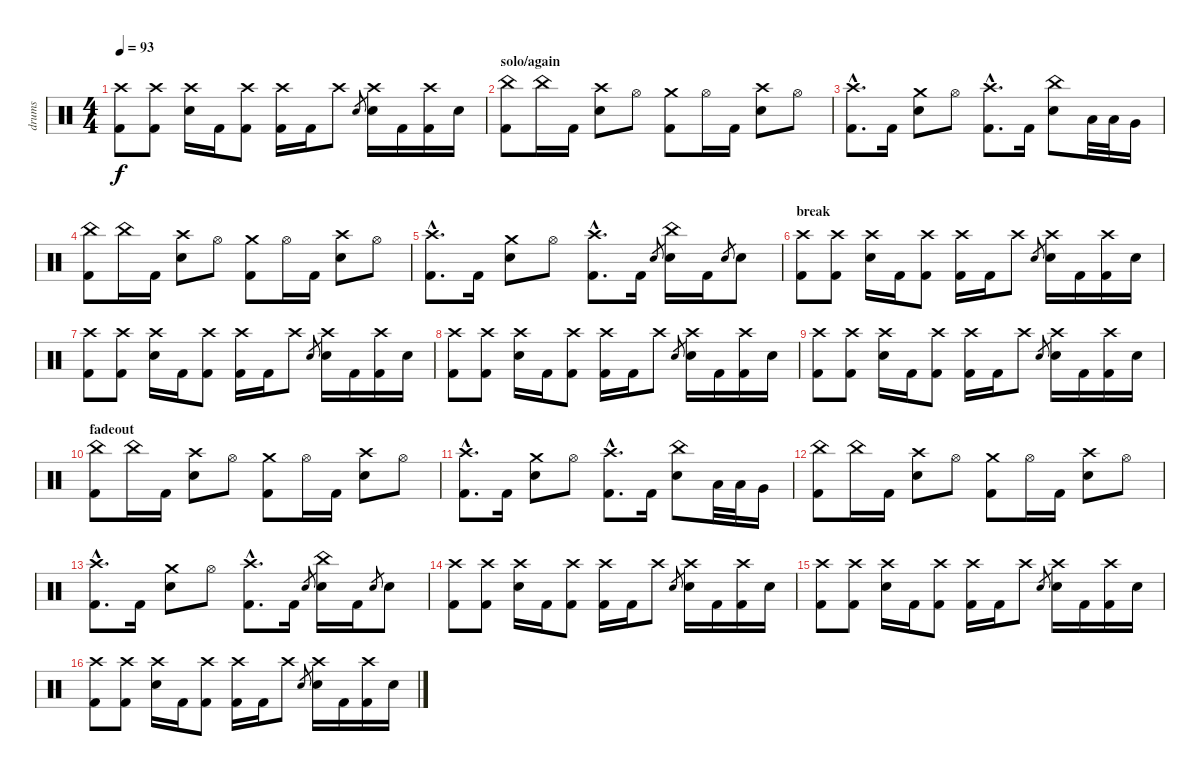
\track ("drums" "drums") {instrument percussion}
\staff {score}
\articulation defaults
\ts (4 4)
\tempo 93
\clef neutral
\ks c
("Crash high (hit)" "Kick (hit) 2").8{dy f} ("Crash high (hit)" "Kick (hit) 2").8 ("Crash high (hit)" "Electric Snare (hit)").16 "Kick (hit) 2".16 ("Crash high (hit)" "Kick (hit) 2").8 ("Crash high (hit)" "Kick (hit) 2").16 "Kick (hit) 2".16 "Crash high (hit)".8 "Electric Snare (hit)".8{gr} ("Crash high (hit)" "Electric Snare (hit)").16 "Kick (hit) 2".16 ("Crash high (hit)" "Kick (hit) 2").16 "Electric Snare (hit)".16 |
\section ("" "solo/again")
("China (hit)" "Kick (hit) 2").8 "China (hit)".16 "Kick (hit) 2".16 ("Crash high (hit)" "Electric Snare (hit)").8 "Hi-Hat (open)".8 ("Crash medium (hit)" "Kick (hit) 2").8 "Hi-Hat (open)".16 "Kick (hit) 2".16 ("Crash high (hit)" "Electric Snare (hit)").8 "Hi-Hat (open)".8 |
("Crash high (hit)"{hac} "Kick (hit) 2"{hac}).8{d} "Kick (hit) 2".16 ("Crash medium (hit)" "Electric Snare (hit)").8 "Hi-Hat (open)".8 ("Crash high (hit)"{hac} "Kick (hit) 2"{hac}).8{d} "Kick (hit) 2".16 ("China (hit)" "Electric Snare (hit)").8 "Low Tom (hit)".32 "Low Tom (hit)".32 "Very Low Tom (hit)".16 |
("China (hit)" "Kick (hit) 2").8 "China (hit)".16 "Kick (hit) 2".16 ("Crash high (hit)" "Electric Snare (hit)").8 "Hi-Hat (open)".8 ("Crash medium (hit)" "Kick (hit) 2").8 "Hi-Hat (open)".16 "Kick (hit) 2".16 ("Crash high (hit)" "Electric Snare (hit)").8 "Hi-Hat (open)".8 |
("Crash high (hit)"{hac} "Kick (hit) 2"{hac}).8{d} "Kick (hit) 2".16 ("Crash medium (hit)" "Electric Snare (hit)").8 "Hi-Hat (open)".8 ("Crash high (hit)"{hac} "Kick (hit) 2"{hac}).8{d} "Kick (hit) 2".16 "Electric Snare (hit)".8{gr} ("China (hit)" "Electric Snare (hit)").16 "Kick (hit) 2".16 "Electric Snare (hit)".8{gr} "Electric Snare (hit)".8 |
\section ("" "break")
("Crash high (hit)" "Kick (hit) 2").8 ("Crash high (hit)" "Kick (hit) 2").8 ("Crash high (hit)" "Electric Snare (hit)").16 "Kick (hit) 2".16 ("Crash high (hit)" "Kick (hit) 2").8 ("Crash high (hit)" "Kick (hit) 2").16 "Kick (hit) 2".16 "Crash high (hit)".8 "Electric Snare (hit)".8{gr} ("Crash high (hit)" "Electric Snare (hit)").16 "Kick (hit) 2".16 ("Crash high (hit)" "Kick (hit) 2").16 "Electric Snare (hit)".16 |
("Crash high (hit)" "Kick (hit) 2").8 ("Crash high (hit)" "Kick (hit) 2").8 ("Crash high (hit)" "Electric Snare (hit)").16 "Kick (hit) 2".16 ("Crash high (hit)" "Kick (hit) 2").8 ("Crash high (hit)" "Kick (hit) 2").16 "Kick (hit) 2".16 "Crash high (hit)".8 "Electric Snare (hit)".8{gr} ("Crash high (hit)" "Electric Snare (hit)").16 "Kick (hit) 2".16 ("Crash high (hit)" "Kick (hit) 2").16 "Electric Snare (hit)".16 |
("Crash high (hit)" "Kick (hit) 2").8 ("Crash high (hit)" "Kick (hit) 2").8 ("Crash high (hit)" "Electric Snare (hit)").16 "Kick (hit) 2".16 ("Crash high (hit)" "Kick (hit) 2").8 ("Crash high (hit)" "Kick (hit) 2").16 "Kick (hit) 2".16 "Crash high (hit)".8 "Electric Snare (hit)".8{gr} ("Crash high (hit)" "Electric Snare (hit)").16 "Kick (hit) 2".16 ("Crash high (hit)" "Kick (hit) 2").16 "Electric Snare (hit)".16 |
("Crash high (hit)" "Kick (hit) 2").8 ("Crash high (hit)" "Kick (hit) 2").8 ("Crash high (hit)" "Electric Snare (hit)").16 "Kick (hit) 2".16 ("Crash high (hit)" "Kick (hit) 2").8 ("Crash high (hit)" "Kick (hit) 2").16 "Kick (hit) 2".16 "Crash high (hit)".8 "Electric Snare (hit)".8{gr} ("Crash high (hit)" "Electric Snare (hit)").16 "Kick (hit) 2".16 ("Crash high (hit)" "Kick (hit) 2").16 "Electric Snare (hit)".16 |
\section ("" "fadeout")
("China (hit)" "Kick (hit) 2").8 "China (hit)".16 "Kick (hit) 2".16 ("Crash high (hit)" "Electric Snare (hit)").8 "Hi-Hat (open)".8 ("Crash medium (hit)" "Kick (hit) 2").8 "Hi-Hat (open)".16 "Kick (hit) 2".16 ("Crash high (hit)" "Electric Snare (hit)").8 "Hi-Hat (open)".8 |
("Crash high (hit)"{hac} "Kick (hit) 2"{hac}).8{d} "Kick (hit) 2".16 ("Crash medium (hit)" "Electric Snare (hit)").8 "Hi-Hat (open)".8 ("Crash high (hit)"{hac} "Kick (hit) 2"{hac}).8{d} "Kick (hit) 2".16 ("China (hit)" "Electric Snare (hit)").8 "Low Tom (hit)".32 "Low Tom (hit)".32 "Very Low Tom (hit)".16 |
("China (hit)" "Kick (hit) 2").8 "China (hit)".16 "Kick (hit) 2".16 ("Crash high (hit)" "Electric Snare (hit)").8 "Hi-Hat (open)".8 ("Crash medium (hit)" "Kick (hit) 2").8 "Hi-Hat (open)".16 "Kick (hit) 2".16 ("Crash high (hit)" "Electric Snare (hit)").8 "Hi-Hat (open)".8 |
("Crash high (hit)"{hac} "Kick (hit) 2"{hac}).8{d} "Kick (hit) 2".16 ("Crash medium (hit)" "Electric Snare (hit)").8 "Hi-Hat (open)".8 ("Crash high (hit)"{hac} "Kick (hit) 2"{hac}).8{d} "Kick (hit) 2".16 "Electric Snare (hit)".8{gr} ("China (hit)" "Electric Snare (hit)").16 "Kick (hit) 2".16 "Electric Snare (hit)".8{gr} "Electric Snare (hit)".8 |
("Crash high (hit)" "Kick (hit) 2").8 ("Crash high (hit)" "Kick (hit) 2").8 ("Crash high (hit)" "Electric Snare (hit)").16 "Kick (hit) 2".16 ("Crash high (hit)" "Kick (hit) 2").8 ("Crash high (hit)" "Kick (hit) 2").16 "Kick (hit) 2".16 "Crash high (hit)".8 "Electric Snare (hit)".8{gr} ("Crash high (hit)" "Electric Snare (hit)").16 "Kick (hit) 2".16 ("Crash high (hit)" "Kick (hit) 2").16 "Electric Snare (hit)".16 |
("Crash high (hit)" "Kick (hit) 2").8 ("Crash high (hit)" "Kick (hit) 2").8 ("Crash high (hit)" "Electric Snare (hit)").16 "Kick (hit) 2".16 ("Crash high (hit)" "Kick (hit) 2").8 ("Crash high (hit)" "Kick (hit) 2").16 "Kick (hit) 2".16 "Crash high (hit)".8 "Electric Snare (hit)".8{gr} ("Crash high (hit)" "Electric Snare (hit)").16 "Kick (hit) 2".16 ("Crash high (hit)" "Kick (hit) 2").16 "Electric Snare (hit)".16 |
("Crash high (hit)" "Kick (hit) 2").8 ("Crash high (hit)" "Kick (hit) 2").8 ("Crash high (hit)" "Electric Snare (hit)").16 "Kick (hit) 2".16 ("Crash high (hit)" "Kick (hit) 2").8 ("Crash high (hit)" "Kick (hit) 2").16 "Kick (hit) 2".16 "Crash high (hit)".8 "Electric Snare (hit)".8{gr} ("Crash high (hit)" "Electric Snare (hit)").16 "Kick (hit) 2".16 ("Crash high (hit)" "Kick (hit) 2").16 "Electric Snare (hit)".16
